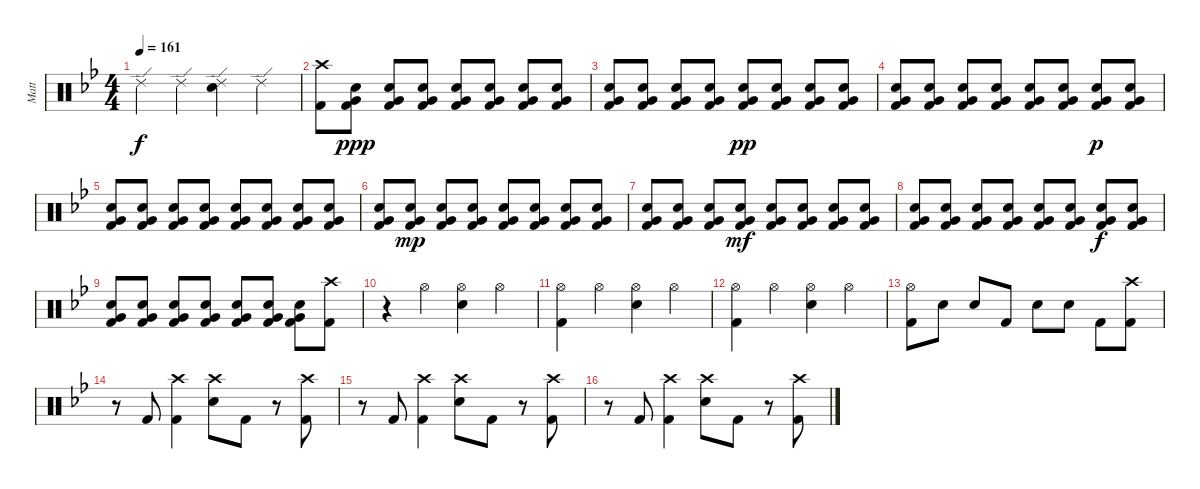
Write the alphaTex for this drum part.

\track ("Matt" "Matt") {instrument percussion}
\staff {score}
\articulation defaults
\ts (4 4)
\tempo 161
\clef neutral
\ks bb "Ride (edge) 2".4{dy f} "Ride (edge) 2".4
("Ride (edge) 2" "Snare (hit) 2").4 "Ride (edge) 2".4 |
("Crash high (hit)" "Kick (hit) 2").8 ("Snare (hit) 2" "Very Low Tom (hit)" "Kick (hit) 2").8{dy ppp} ("Snare (hit) 2" "Very Low Tom (hit)" "Kick (hit) 2").8 ("Snare (hit) 2" "Very Low Tom (hit)" "Kick (hit) 2").8 ("Snare (hit) 2" "Very Low Tom (hit)" "Kick (hit) 2").8 ("Snare (hit) 2" "Very Low Tom (hit)" "Kick (hit) 2").8 ("Snare (hit) 2" "Very Low Tom (hit)" "Kick (hit) 2").8 ("Snare (hit) 2" "Very Low Tom (hit)" "Kick (hit) 2").8 |
("Snare (hit) 2" "Very Low Tom (hit)" "Kick (hit) 2").8 ("Snare (hit) 2" "Very Low Tom (hit)" "Kick (hit) 2").8 ("Snare (hit) 2" "Very Low Tom (hit)" "Kick (hit) 2").8 ("Snare (hit) 2" "Very Low Tom (hit)" "Kick (hit) 2").8 ("Snare (hit) 2" "Very Low Tom (hit)" "Kick (hit) 2").8{dy pp} ("Snare (hit) 2" "Very Low Tom (hit)" "Kick (hit) 2").8 ("Snare (hit) 2" "Very Low Tom (hit)" "Kick (hit) 2").8 ("Snare (hit) 2" "Very Low Tom (hit)" "Kick (hit) 2").8 |
("Snare (hit) 2" "Very Low Tom (hit)" "Kick (hit) 2").8 ("Snare (hit) 2" "Very Low Tom (hit)" "Kick (hit) 2").8 ("Snare (hit) 2" "Very Low Tom (hit)" "Kick (hit) 2").8 ("Snare (hit) 2" "Very Low Tom (hit)" "Kick (hit) 2").8 ("Snare (hit) 2" "Very Low Tom (hit)" "Kick (hit) 2").8 ("Snare (hit) 2" "Very Low Tom (hit)" "Kick (hit) 2").8 ("Snare (hit) 2" "Very Low Tom (hit)" "Kick (hit) 2").8{dy p} ("Snare (hit) 2" "Very Low Tom (hit)" "Kick (hit) 2").8 |
("Snare (hit) 2" "Very Low Tom (hit)" "Kick (hit) 2").8 ("Snare (hit) 2" "Very Low Tom (hit)" "Kick (hit) 2").8 ("Snare (hit) 2" "Very Low Tom (hit)" "Kick (hit) 2").8 ("Snare (hit) 2" "Very Low Tom (hit)" "Kick (hit) 2").8 ("Snare (hit) 2" "Very Low Tom (hit)" "Kick (hit) 2").8 ("Snare (hit) 2" "Very Low Tom (hit)" "Kick (hit) 2").8 ("Snare (hit) 2" "Very Low Tom (hit)" "Kick (hit) 2").8 ("Snare (hit) 2" "Very Low Tom (hit)" "Kick (hit) 2").8 |
("Snare (hit) 2" "Very Low Tom (hit)" "Kick (hit) 2").8 ("Snare (hit) 2" "Very Low Tom (hit)" "Kick (hit) 2").8{dy mp} ("Snare (hit) 2" "Very Low Tom (hit)" "Kick (hit) 2").8 ("Snare (hit) 2" "Very Low Tom (hit)" "Kick (hit) 2").8 ("Snare (hit) 2" "Very Low Tom (hit)" "Kick (hit) 2").8 ("Snare (hit) 2" "Very Low Tom (hit)" "Kick (hit) 2").8 ("Snare (hit) 2" "Very Low Tom (hit)" "Kick (hit) 2").8 ("Snare (hit) 2" "Very Low Tom (hit)" "Kick (hit) 2").8 |
("Snare (hit) 2" "Very Low Tom (hit)" "Kick (hit) 2").8 ("Snare (hit) 2" "Very Low Tom (hit)" "Kick (hit) 2").8 ("Snare (hit) 2" "Very Low Tom (hit)" "Kick (hit) 2").8 ("Snare (hit) 2" "Very Low Tom (hit)" "Kick (hit) 2").8{dy mf} ("Snare (hit) 2" "Very Low Tom (hit)" "Kick (hit) 2").8 ("Snare (hit) 2" "Very Low Tom (hit)" "Kick (hit) 2").8 ("Snare (hit) 2" "Very Low Tom (hit)" "Kick (hit) 2").8 ("Snare (hit) 2" "Very Low Tom (hit)" "Kick (hit) 2").8 |
("Snare (hit) 2" "Very Low Tom (hit)" "Kick (hit) 2").8 ("Snare (hit) 2" "Very Low Tom (hit)" "Kick (hit) 2").8 ("Snare (hit) 2" "Very Low Tom (hit)" "Kick (hit) 2").8 ("Snare (hit) 2" "Very Low Tom (hit)" "Kick (hit) 2").8 ("Snare (hit) 2" "Very Low Tom (hit)" "Kick (hit) 2").8 ("Snare (hit) 2" "Very Low Tom (hit)" "Kick (hit) 2").8 ("Snare (hit) 2" "Very Low Tom (hit)" "Kick (hit) 2").8{dy f} ("Snare (hit) 2" "Very Low Tom (hit)" "Kick (hit) 2").8 |
("Snare (hit) 2" "Very Low Tom (hit)" "Kick (hit) 2").8 ("Snare (hit) 2" "Very Low Tom (hit)" "Kick (hit) 2").8 ("Snare (hit) 2" "Very Low Tom (hit)" "Kick (hit) 2").8 ("Snare (hit) 2" "Very Low Tom (hit)" "Kick (hit) 2").8 ("Snare (hit) 2" "Very Low Tom (hit)" "Kick (hit) 2").8 ("Snare (hit) 2" "Very Low Tom (hit)" "Kick (hit) 2").8 ("Snare (hit) 2" "Very Low Tom (hit)" "Kick (hit) 2").8 ("Crash high (hit)" "Kick (hit) 2").8 |
r.4 "Hi-Hat (open)".4 ("Hi-Hat (open)" "Snare (hit) 2").4 "Hi-Hat (open)".4 |
("Hi-Hat (open)" "Kick (hit) 2").4 "Hi-Hat (open)".4 ("Hi-Hat (open)" "Snare (hit) 2").4 "Hi-Hat (open)".4 |
("Hi-Hat (open)" "Kick (hit) 2").4 "Hi-Hat (open)".4 ("Hi-Hat (open)" "Snare (hit) 2").4 "Hi-Hat (open)".4 |
("Hi-Hat (open)" "Kick (hit) 2").8 "Snare (hit) 2".8 "Snare (hit) 2".8 "Kick (hit) 2".8 "Snare (hit) 2".8 "Snare (hit) 2".8 "Kick (hit) 2".8 ("Crash high (hit)" "Kick (hit) 2").8 |
r.8 "Kick (hit) 2".8 ("Crash high (hit)" "Kick (hit) 2").4 ("Crash high (hit)" "Snare (hit) 2").8 "Kick (hit) 2".8 r.8 ("Crash high (hit)" "Kick (hit) 2").8 |
r.8 "Kick (hit) 2".8 ("Crash high (hit)" "Kick (hit) 2").4 ("Crash high (hit)" "Snare (hit) 2").8 "Kick (hit) 2".8 r.8 ("Crash high (hit)" "Kick (hit) 2").8 |
r.8 "Kick (hit) 2".8 ("Crash high (hit)" "Kick (hit) 2").4 ("Crash high (hit)" "Snare (hit) 2").8 "Kick (hit) 2".8 r.8 ("Crash high (hit)" "Kick (hit) 2").8
